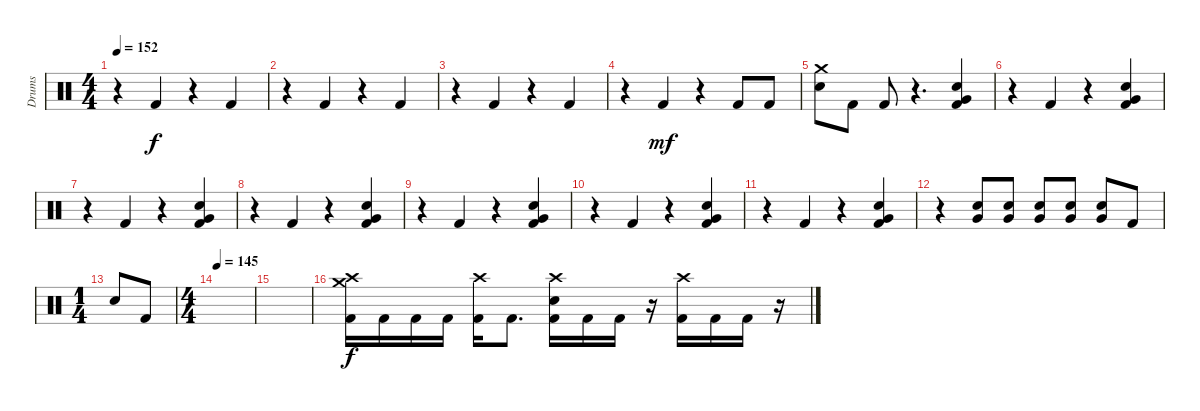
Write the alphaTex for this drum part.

\track ("Drums" "Drums") {instrument percussion}
\staff {score}
\articulation defaults
\ts (4 4)
\tempo 152
\clef neutral
\ks c
r.4{dy f} "Kick (hit) 2".4 r.4 "Kick (hit) 2".4 |
r.4 "Kick (hit) 2".4 r.4 "Kick (hit) 2".4 |
r.4 "Kick (hit) 2".4 r.4 "Kick (hit) 2".4 |
r.4 "Kick (hit) 2".4{dy mf} r.4 "Kick (hit) 2".8 "Kick (hit) 2".8 |
("Crash medium (hit)" "Electric Snare (hit)").8 "Kick (hit) 2".8 "Kick (hit) 2".8 r.4{d} ("Very Low Tom (hit)" "Electric Snare (hit)" "Kick (hit) 2").4 |
r.4 "Kick (hit) 2".4 r.4 ("Very Low Tom (hit)" "Electric Snare (hit)" "Kick (hit) 2").4 |
r.4 "Kick (hit) 2".4 r.4 ("Very Low Tom (hit)" "Electric Snare (hit)" "Kick (hit) 2").4 |
r.4 "Kick (hit) 2".4 r.4 ("Very Low Tom (hit)" "Electric Snare (hit)" "Kick (hit) 2").4 |
r.4 "Kick (hit) 2".4 r.4 ("Very Low Tom (hit)" "Electric Snare (hit)" "Kick (hit) 2").4 |
r.4 "Kick (hit) 2".4 r.4 ("Very Low Tom (hit)" "Electric Snare (hit)" "Kick (hit) 2").4 |
r.4 "Kick (hit) 2".4 r.4 ("Very Low Tom (hit)" "Electric Snare (hit)" "Kick (hit) 2").4 |
r.4 ("Very Low Tom (hit)" "Electric Snare (hit)").8 ("Very Low Tom (hit)" "Electric Snare (hit)").8 ("Very Low Tom (hit)" "Electric Snare (hit)").8 ("Very Low Tom (hit)" "Electric Snare (hit)").8 ("Very Low Tom (hit)" "Electric Snare (hit)").8 "Kick (hit) 2".8 |
\ts (1 4)
"Electric Snare (hit)".8 "Kick (hit) 2".8 |
\ts (4 4)
\tempo 145
|
|
("Crash high (hit)" "Crash medium (hit)" "Kick (hit) 2").16{dy f} "Kick (hit) 2".16 "Kick (hit) 2".16 "Kick (hit) 2".16 ("Crash high (hit)" "Kick (hit) 2").16 "Kick (hit) 2".8{d} ("Crash high (hit)" "Electric Snare (hit)" "Kick (hit) 2").16 "Kick (hit) 2".16 "Kick (hit) 2".16 r.16 ("Crash high (hit)" "Kick (hit) 2").16 "Kick (hit) 2".16 "Kick (hit) 2".16 r.16
